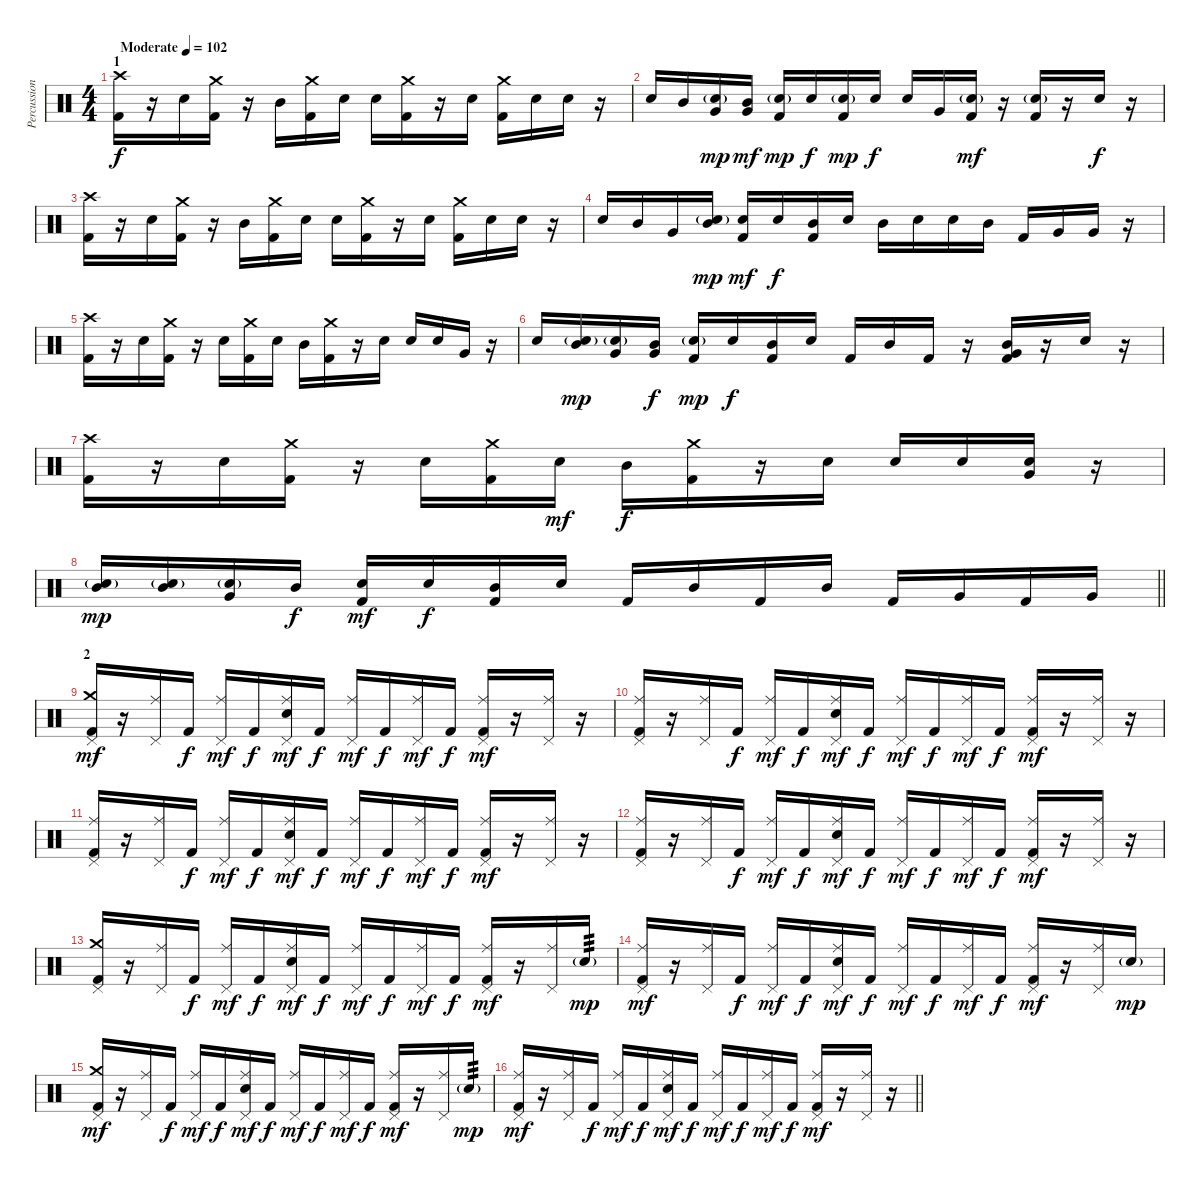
\track ("Percussion" "Percussion") {instrument percussion}
\staff {score}
\articulation defaults
\ts (4 4)
\section ("" "1")
\tempo (102 "Moderate")
\clef neutral
\ks c
("Crash high (hit)" "Kick (hit) 2").16{dy f} r.16 "Snare (hit) 2".16 ("Crash medium (hit)" "Kick (hit) 2").16 r.16 "Mid Tom (hit)".16 ("Crash medium (hit)" "Kick (hit) 2").16 "Snare (hit) 2".16 "Snare (hit) 2".16 ("Crash medium (hit)" "Kick (hit) 2").16 r.16 "Snare (hit) 2".16 ("Crash medium (hit)" "Kick (hit) 2").16 "Snare (hit) 2".16 "Snare (hit) 2".16 r.16 |
"Snare (hit) 2".16 "Mid Tom (hit)".16 ("Snare (hit) 2"{g} "Very Low Tom (hit)").16{dy mp} ("Mid Tom (hit)" "Very Low Tom (hit)").16{dy mf} ("Snare (hit) 2"{g} "Kick (hit) 2").16{dy mp} "Snare (hit) 2".16{dy f} ("Snare (hit) 2"{g} "Kick (hit) 2").16{dy mp} "Snare (hit) 2".16{dy f} "Snare (hit) 2".16 "Very Low Tom (hit)".16 ("Snare (hit) 2"{g} "Kick (hit) 2").16{dy mf} r.16 ("Snare (hit) 2"{g} "Kick (hit) 2").16 r.16 "Snare (hit) 2".16{dy f} r.16 |
("Crash high (hit)" "Kick (hit) 2").16 r.16 "Snare (hit) 2".16 ("Crash medium (hit)" "Kick (hit) 2").16 r.16 "Mid Tom (hit)".16 ("Crash medium (hit)" "Kick (hit) 2").16 "Snare (hit) 2".16 "Snare (hit) 2".16 ("Crash medium (hit)" "Kick (hit) 2").16 r.16 "Snare (hit) 2".16 ("Crash medium (hit)" "Kick (hit) 2").16 "Snare (hit) 2".16 "Snare (hit) 2".16 r.16 |
"Snare (hit) 2".16 "Mid Tom (hit)".16 "Very Low Tom (hit)".16 ("Mid Tom (hit)" "Snare (hit) 2"{g}).16{dy mp} ("Snare (hit) 2" "Kick (hit) 2").16{dy mf} "Snare (hit) 2".16{dy f} ("Mid Tom (hit)" "Kick (hit) 2").16 "Snare (hit) 2".16 "Mid Tom (hit)".16 "Snare (hit) 2".16 "Snare (hit) 2".16 "Mid Tom (hit)".16 "Kick (hit) 2".16 "Very Low Tom (hit)".16 "Very Low Tom (hit)".16 r.16 |
("Crash high (hit)" "Kick (hit) 2").16 r.16 "Snare (hit) 2".16 ("Crash medium (hit)" "Kick (hit) 2").16 r.16 "Snare (hit) 2".16 ("Crash medium (hit)" "Kick (hit) 2").16 "Snare (hit) 2".16 "Mid Tom (hit)".16 ("Crash medium (hit)" "Kick (hit) 2").16 r.16 "Snare (hit) 2".16 "Snare (hit) 2".16 "Snare (hit) 2".16 "Very Low Tom (hit)".16 r.16 |
"Snare (hit) 2".16 ("Mid Tom (hit)" "Snare (hit) 2"{g}).16{dy mp} ("Snare (hit) 2"{g} "Very Low Tom (hit)").16 ("Mid Tom (hit)" "Very Low Tom (hit)").16{dy f} ("Snare (hit) 2"{g} "Kick (hit) 2").16{dy mp} "Snare (hit) 2".16{dy f} ("Mid Tom (hit)" "Kick (hit) 2").16 "Snare (hit) 2".16 "Kick (hit) 2".16 "Mid Tom (hit)".16 "Kick (hit) 2".16 r.16 ("Mid Tom (hit)" "Very Low Tom (hit)" "Kick (hit) 2").16 r.16 "Snare (hit) 2".16 r.16 |
("Crash high (hit)" "Kick (hit) 2").16 r.16 "Snare (hit) 2".16 ("Crash medium (hit)" "Kick (hit) 2").16 r.16 "Snare (hit) 2".16 ("Crash medium (hit)" "Kick (hit) 2").16 "Snare (hit) 2".16{dy mf} "Mid Tom (hit)".16{dy f} ("Crash medium (hit)" "Kick (hit) 2").16 r.16 "Snare (hit) 2".16 "Snare (hit) 2".16 "Snare (hit) 2".16 ("Snare (hit) 2" "Very Low Tom (hit)").16 r.16 |
\barLineRight lightlight
("Mid Tom (hit)" "Snare (hit) 2"{g}).16{dy mp} ("Mid Tom (hit)" "Snare (hit) 2"{g}).16 ("Snare (hit) 2"{g} "Very Low Tom (hit)").16 "Mid Tom (hit)".16{dy f} ("Snare (hit) 2" "Kick (hit) 2").16{dy mf} "Snare (hit) 2".16{dy f} ("Mid Tom (hit)" "Kick (hit) 2").16 "Snare (hit) 2".16 "Kick (hit) 2".16 "Mid Tom (hit)".16 "Kick (hit) 2".16 "Mid Tom (hit)".16 "Kick (hit) 2".16 "Very Low Tom (hit)".16 "Kick (hit) 2".16 "Very Low Tom (hit)".16 |
\section ("" "2")
("Crash medium (hit)" "Pedal Hi-Hat (hit)" "Kick (hit) 2").16{dy mf} r.16 ("Ride (middle)" "Pedal Hi-Hat (hit)").16 "Kick (hit) 2".16{dy f} ("Ride (middle)" "Pedal Hi-Hat (hit)").16{dy mf} "Kick (hit) 2".16{dy f} ("Ride (middle)" "Pedal Hi-Hat (hit)" "Snare (hit) 2").16{dy mf} "Kick (hit) 2".16{dy f} ("Ride (middle)" "Pedal Hi-Hat (hit)").16{dy mf} "Kick (hit) 2".16{dy f} ("Ride (middle)" "Pedal Hi-Hat (hit)").16{dy mf} "Kick (hit) 2".16{dy f} ("Ride (middle)" "Pedal Hi-Hat (hit)" "Kick (hit) 2").16{dy mf} r.16 ("Ride (middle)" "Pedal Hi-Hat (hit)").16 r.16 |
("Ride (middle)" "Pedal Hi-Hat (hit)" "Kick (hit) 2").16 r.16 ("Ride (middle)" "Pedal Hi-Hat (hit)").16 "Kick (hit) 2".16{dy f} ("Ride (middle)" "Pedal Hi-Hat (hit)").16{dy mf} "Kick (hit) 2".16{dy f} ("Ride (middle)" "Pedal Hi-Hat (hit)" "Snare (hit) 2").16{dy mf} "Kick (hit) 2".16{dy f} ("Ride (middle)" "Pedal Hi-Hat (hit)").16{dy mf} "Kick (hit) 2".16{dy f} ("Ride (middle)" "Pedal Hi-Hat (hit)").16{dy mf} "Kick (hit) 2".16{dy f} ("Ride (middle)" "Pedal Hi-Hat (hit)" "Kick (hit) 2").16{dy mf} r.16 ("Ride (middle)" "Pedal Hi-Hat (hit)").16 r.16 |
("Ride (middle)" "Pedal Hi-Hat (hit)" "Kick (hit) 2").16 r.16 ("Ride (middle)" "Pedal Hi-Hat (hit)").16 "Kick (hit) 2".16{dy f} ("Ride (middle)" "Pedal Hi-Hat (hit)").16{dy mf} "Kick (hit) 2".16{dy f} ("Ride (middle)" "Pedal Hi-Hat (hit)" "Snare (hit) 2").16{dy mf} "Kick (hit) 2".16{dy f} ("Ride (middle)" "Pedal Hi-Hat (hit)").16{dy mf} "Kick (hit) 2".16{dy f} ("Ride (middle)" "Pedal Hi-Hat (hit)").16{dy mf} "Kick (hit) 2".16{dy f} ("Ride (middle)" "Pedal Hi-Hat (hit)" "Kick (hit) 2").16{dy mf} r.16 ("Ride (middle)" "Pedal Hi-Hat (hit)").16 r.16 |
("Ride (middle)" "Pedal Hi-Hat (hit)" "Kick (hit) 2").16 r.16 ("Ride (middle)" "Pedal Hi-Hat (hit)").16 "Kick (hit) 2".16{dy f} ("Ride (middle)" "Pedal Hi-Hat (hit)").16{dy mf} "Kick (hit) 2".16{dy f} ("Ride (middle)" "Pedal Hi-Hat (hit)" "Snare (hit) 2").16{dy mf} "Kick (hit) 2".16{dy f} ("Ride (middle)" "Pedal Hi-Hat (hit)").16{dy mf} "Kick (hit) 2".16{dy f} ("Ride (middle)" "Pedal Hi-Hat (hit)").16{dy mf} "Kick (hit) 2".16{dy f} ("Ride (middle)" "Pedal Hi-Hat (hit)" "Kick (hit) 2").16{dy mf} r.16 ("Ride (middle)" "Pedal Hi-Hat (hit)").16 r.16 |
("Crash medium (hit)" "Pedal Hi-Hat (hit)" "Kick (hit) 2").16 r.16 ("Ride (middle)" "Pedal Hi-Hat (hit)").16 "Kick (hit) 2".16{dy f} ("Ride (middle)" "Pedal Hi-Hat (hit)").16{dy mf} "Kick (hit) 2".16{dy f} ("Ride (middle)" "Pedal Hi-Hat (hit)" "Snare (hit) 2").16{dy mf} "Kick (hit) 2".16{dy f} ("Ride (middle)" "Pedal Hi-Hat (hit)").16{dy mf} "Kick (hit) 2".16{dy f} ("Ride (middle)" "Pedal Hi-Hat (hit)").16{dy mf} "Kick (hit) 2".16{dy f} ("Ride (middle)" "Pedal Hi-Hat (hit)" "Kick (hit) 2").16{dy mf} r.16 ("Ride (middle)" "Pedal Hi-Hat (hit)").16 "Snare (hit) 2"{g}.16{tp 3 dy mp} |
("Ride (middle)" "Pedal Hi-Hat (hit)" "Kick (hit) 2").16{dy mf} r.16 ("Ride (middle)" "Pedal Hi-Hat (hit)").16 "Kick (hit) 2".16{dy f} ("Ride (middle)" "Pedal Hi-Hat (hit)").16{dy mf} "Kick (hit) 2".16{dy f} ("Ride (middle)" "Pedal Hi-Hat (hit)" "Snare (hit) 2").16{dy mf} "Kick (hit) 2".16{dy f} ("Ride (middle)" "Pedal Hi-Hat (hit)").16{dy mf} "Kick (hit) 2".16{dy f} ("Ride (middle)" "Pedal Hi-Hat (hit)").16{dy mf} "Kick (hit) 2".16{dy f} ("Ride (middle)" "Pedal Hi-Hat (hit)" "Kick (hit) 2").16{dy mf} r.16 ("Ride (middle)" "Pedal Hi-Hat (hit)").16 "Snare (hit) 2"{g}.16{dy mp} |
("Crash medium (hit)" "Pedal Hi-Hat (hit)" "Kick (hit) 2").16{dy mf} r.16 ("Ride (middle)" "Pedal Hi-Hat (hit)").16 "Kick (hit) 2".16{dy f} ("Ride (middle)" "Pedal Hi-Hat (hit)").16{dy mf} "Kick (hit) 2".16{dy f} ("Ride (middle)" "Pedal Hi-Hat (hit)" "Snare (hit) 2").16{dy mf} "Kick (hit) 2".16{dy f} ("Ride (middle)" "Pedal Hi-Hat (hit)").16{dy mf} "Kick (hit) 2".16{dy f} ("Ride (middle)" "Pedal Hi-Hat (hit)").16{dy mf} "Kick (hit) 2".16{dy f} ("Ride (middle)" "Pedal Hi-Hat (hit)" "Kick (hit) 2").16{dy mf} r.16 ("Ride (middle)" "Pedal Hi-Hat (hit)").16 "Snare (hit) 2"{g}.16{tp 3 dy mp} |
\barLineRight lightlight
("Ride (middle)" "Pedal Hi-Hat (hit)" "Kick (hit) 2").16{dy mf} r.16 ("Ride (middle)" "Pedal Hi-Hat (hit)").16 "Kick (hit) 2".16{dy f} ("Ride (middle)" "Pedal Hi-Hat (hit)").16{dy mf} "Kick (hit) 2".16{dy f} ("Ride (middle)" "Pedal Hi-Hat (hit)" "Snare (hit) 2").16{dy mf} "Kick (hit) 2".16{dy f} ("Ride (middle)" "Pedal Hi-Hat (hit)").16{dy mf} "Kick (hit) 2".16{dy f} ("Ride (middle)" "Pedal Hi-Hat (hit)").16{dy mf} "Kick (hit) 2".16{dy f} ("Ride (middle)" "Pedal Hi-Hat (hit)" "Kick (hit) 2").16{dy mf} r.16 ("Ride (middle)" "Pedal Hi-Hat (hit)").16 r.16
